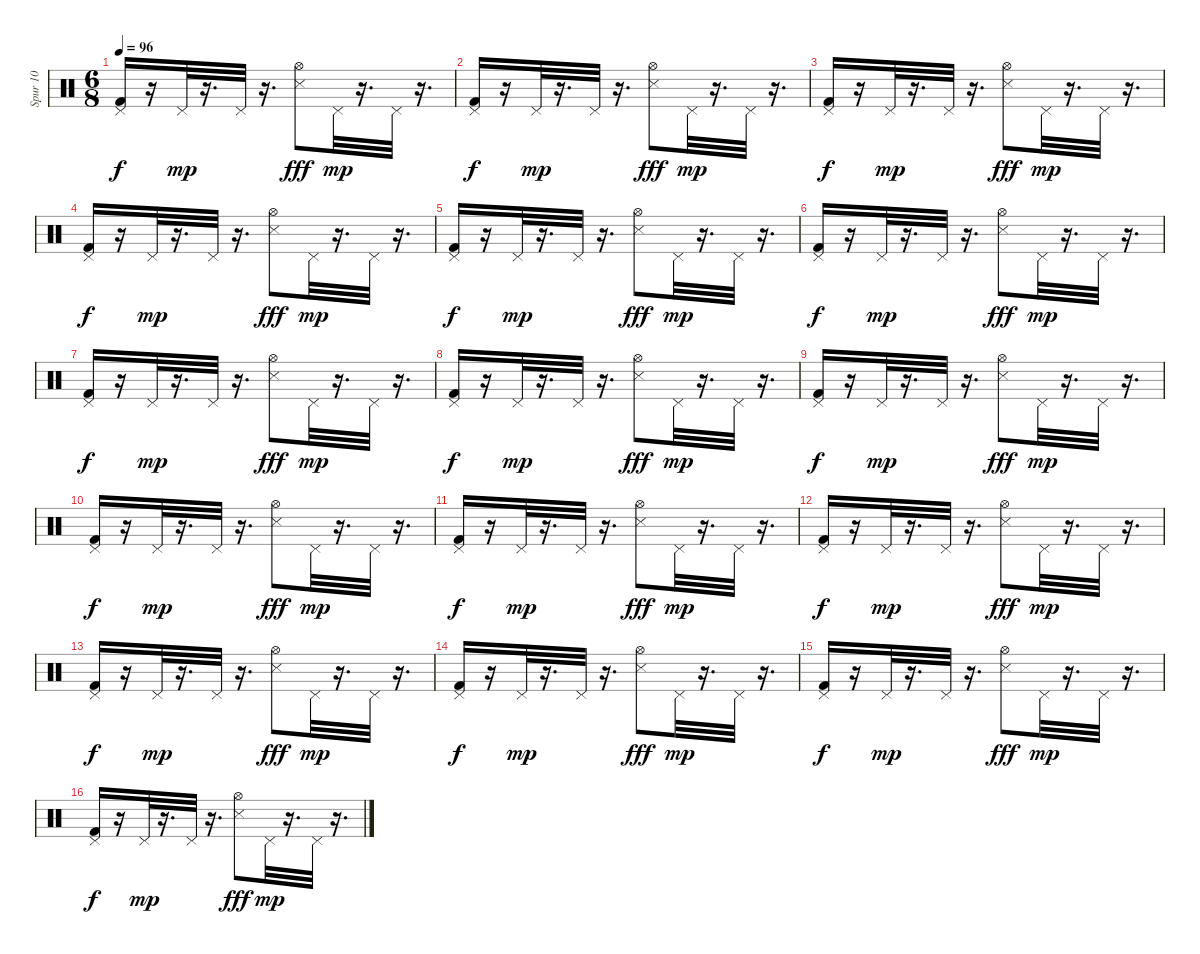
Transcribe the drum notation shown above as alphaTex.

\track ("Spur 10" "Spur 10") {instrument percussion}
\staff {score}
\articulation defaults
\ts (6 8)
\tempo 96
\clef neutral
\ks c
("Pedal Hi-Hat (hit)" "Kick (hit) 2").16{dy f} r.16 "Pedal Hi-Hat (hit)".32{dy mp} r.16{d} "Pedal Hi-Hat (hit)".32 r.16{d} ("Snare (side stick) 3" "Hi-Hat (open)").8{dy fff} "Pedal Hi-Hat (hit)".32{dy mp} r.16{d} "Pedal Hi-Hat (hit)".32 r.16{d} |
("Pedal Hi-Hat (hit)" "Kick (hit) 2").16{dy f} r.16 "Pedal Hi-Hat (hit)".32{dy mp} r.16{d} "Pedal Hi-Hat (hit)".32 r.16{d} ("Snare (side stick) 3" "Hi-Hat (open)").8{dy fff} "Pedal Hi-Hat (hit)".32{dy mp} r.16{d} "Pedal Hi-Hat (hit)".32 r.16{d} |
("Pedal Hi-Hat (hit)" "Kick (hit) 2").16{dy f} r.16 "Pedal Hi-Hat (hit)".32{dy mp} r.16{d} "Pedal Hi-Hat (hit)".32 r.16{d} ("Snare (side stick) 3" "Hi-Hat (open)").8{dy fff} "Pedal Hi-Hat (hit)".32{dy mp} r.16{d} "Pedal Hi-Hat (hit)".32 r.16{d} |
("Pedal Hi-Hat (hit)" "Kick (hit) 2").16{dy f} r.16 "Pedal Hi-Hat (hit)".32{dy mp} r.16{d} "Pedal Hi-Hat (hit)".32 r.16{d} ("Snare (side stick) 3" "Hi-Hat (open)").8{dy fff} "Pedal Hi-Hat (hit)".32{dy mp} r.16{d} "Pedal Hi-Hat (hit)".32 r.16{d} |
("Pedal Hi-Hat (hit)" "Kick (hit) 2").16{dy f} r.16 "Pedal Hi-Hat (hit)".32{dy mp} r.16{d} "Pedal Hi-Hat (hit)".32 r.16{d} ("Snare (side stick) 3" "Hi-Hat (open)").8{dy fff} "Pedal Hi-Hat (hit)".32{dy mp} r.16{d} "Pedal Hi-Hat (hit)".32 r.16{d} |
("Pedal Hi-Hat (hit)" "Kick (hit) 2").16{dy f} r.16 "Pedal Hi-Hat (hit)".32{dy mp} r.16{d} "Pedal Hi-Hat (hit)".32 r.16{d} ("Snare (side stick) 3" "Hi-Hat (open)").8{dy fff} "Pedal Hi-Hat (hit)".32{dy mp} r.16{d} "Pedal Hi-Hat (hit)".32 r.16{d} |
("Pedal Hi-Hat (hit)" "Kick (hit) 2").16{dy f} r.16 "Pedal Hi-Hat (hit)".32{dy mp} r.16{d} "Pedal Hi-Hat (hit)".32 r.16{d} ("Snare (side stick) 3" "Hi-Hat (open)").8{dy fff} "Pedal Hi-Hat (hit)".32{dy mp} r.16{d} "Pedal Hi-Hat (hit)".32 r.16{d} |
("Pedal Hi-Hat (hit)" "Kick (hit) 2").16{dy f} r.16 "Pedal Hi-Hat (hit)".32{dy mp} r.16{d} "Pedal Hi-Hat (hit)".32 r.16{d} ("Snare (side stick) 3" "Hi-Hat (open)").8{dy fff} "Pedal Hi-Hat (hit)".32{dy mp} r.16{d} "Pedal Hi-Hat (hit)".32 r.16{d} |
("Pedal Hi-Hat (hit)" "Kick (hit) 2").16{dy f} r.16 "Pedal Hi-Hat (hit)".32{dy mp} r.16{d} "Pedal Hi-Hat (hit)".32 r.16{d} ("Snare (side stick) 3" "Hi-Hat (open)").8{dy fff} "Pedal Hi-Hat (hit)".32{dy mp} r.16{d} "Pedal Hi-Hat (hit)".32 r.16{d} |
("Pedal Hi-Hat (hit)" "Kick (hit) 2").16{dy f} r.16 "Pedal Hi-Hat (hit)".32{dy mp} r.16{d} "Pedal Hi-Hat (hit)".32 r.16{d} ("Snare (side stick) 3" "Hi-Hat (open)").8{dy fff} "Pedal Hi-Hat (hit)".32{dy mp} r.16{d} "Pedal Hi-Hat (hit)".32 r.16{d} |
("Pedal Hi-Hat (hit)" "Kick (hit) 2").16{dy f} r.16 "Pedal Hi-Hat (hit)".32{dy mp} r.16{d} "Pedal Hi-Hat (hit)".32 r.16{d} ("Snare (side stick) 3" "Hi-Hat (open)").8{dy fff} "Pedal Hi-Hat (hit)".32{dy mp} r.16{d} "Pedal Hi-Hat (hit)".32 r.16{d} |
("Pedal Hi-Hat (hit)" "Kick (hit) 2").16{dy f} r.16 "Pedal Hi-Hat (hit)".32{dy mp} r.16{d} "Pedal Hi-Hat (hit)".32 r.16{d} ("Snare (side stick) 3" "Hi-Hat (open)").8{dy fff} "Pedal Hi-Hat (hit)".32{dy mp} r.16{d} "Pedal Hi-Hat (hit)".32 r.16{d} |
("Pedal Hi-Hat (hit)" "Kick (hit) 2").16{dy f} r.16 "Pedal Hi-Hat (hit)".32{dy mp} r.16{d} "Pedal Hi-Hat (hit)".32 r.16{d} ("Snare (side stick) 3" "Hi-Hat (open)").8{dy fff} "Pedal Hi-Hat (hit)".32{dy mp} r.16{d} "Pedal Hi-Hat (hit)".32 r.16{d} |
("Pedal Hi-Hat (hit)" "Kick (hit) 2").16{dy f} r.16 "Pedal Hi-Hat (hit)".32{dy mp} r.16{d} "Pedal Hi-Hat (hit)".32 r.16{d} ("Snare (side stick) 3" "Hi-Hat (open)").8{dy fff} "Pedal Hi-Hat (hit)".32{dy mp} r.16{d} "Pedal Hi-Hat (hit)".32 r.16{d} |
("Pedal Hi-Hat (hit)" "Kick (hit) 2").16{dy f} r.16 "Pedal Hi-Hat (hit)".32{dy mp} r.16{d} "Pedal Hi-Hat (hit)".32 r.16{d} ("Snare (side stick) 3" "Hi-Hat (open)").8{dy fff} "Pedal Hi-Hat (hit)".32{dy mp} r.16{d} "Pedal Hi-Hat (hit)".32 r.16{d} |
("Pedal Hi-Hat (hit)" "Kick (hit) 2").16{dy f} r.16 "Pedal Hi-Hat (hit)".32{dy mp} r.16{d} "Pedal Hi-Hat (hit)".32 r.16{d} ("Snare (side stick) 3" "Hi-Hat (open)").8{dy fff} "Pedal Hi-Hat (hit)".32{dy mp} r.16{d} "Pedal Hi-Hat (hit)".32 r.16{d}
